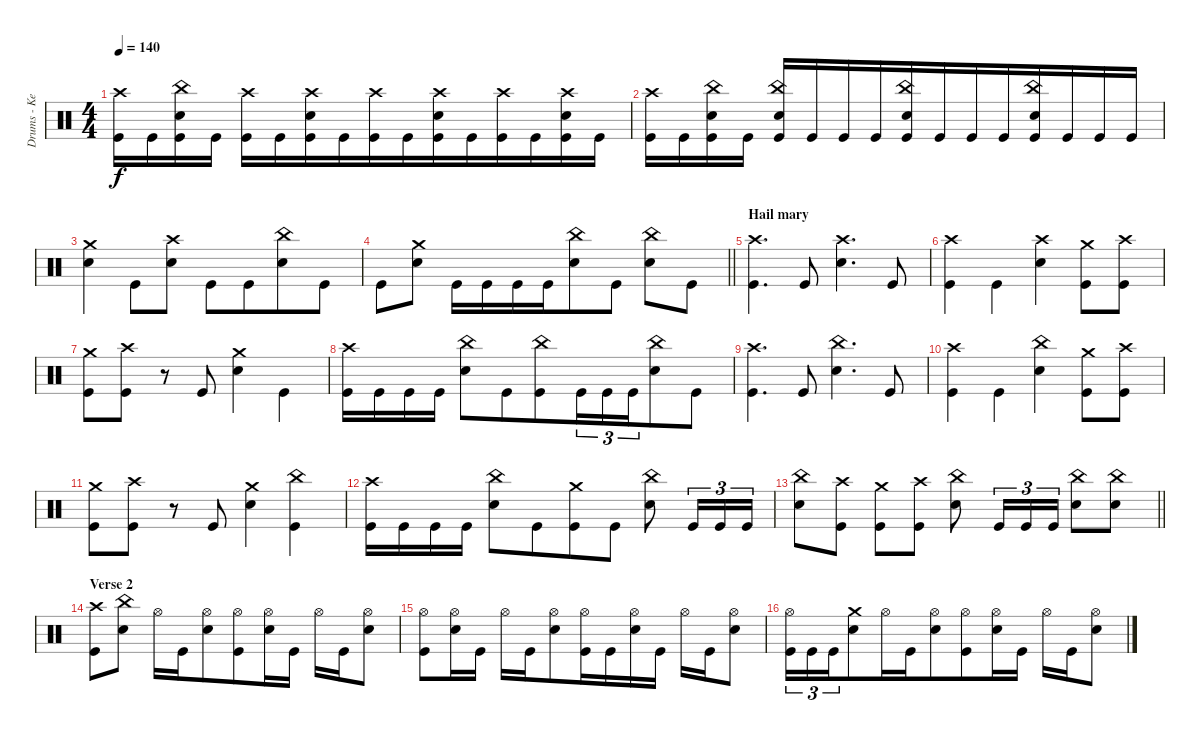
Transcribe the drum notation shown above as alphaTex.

\track ("Drums - Kevin Boutot" "Drums - Ke") {instrument percussion}
\staff {score}
\articulation defaults
\ts (4 4)
\tempo 140
\clef neutral
\ks c
("Crash high (hit)" "Kick (hit)").16{dy f} "Kick (hit)".16 ("China (hit)" "Electric Snare (hit)" "Kick (hit)").16 "Kick (hit)".16 ("Crash high (hit)" "Kick (hit)").16 "Kick (hit)".16{beam merge} ("Crash high (hit)" "Electric Snare (hit)" "Kick (hit)").16 "Kick (hit)".16{beam merge} ("Crash high (hit)" "Kick (hit)").16 "Kick (hit)".16 ("Crash high (hit)" "Electric Snare (hit)" "Kick (hit)").16 "Kick (hit)".16{beam merge} ("Crash high (hit)" "Kick (hit)").16{beam merge} "Kick (hit)".16{beam merge} ("Crash high (hit)" "Electric Snare (hit)" "Kick (hit)").16{beam merge} "Kick (hit)".16 |
("Crash high (hit)" "Kick (hit)").16 "Kick (hit)".16 ("China (hit)" "Electric Snare (hit)" "Kick (hit)").16 "Kick (hit)".16 ("China (hit)" "Electric Snare (hit)" "Kick (hit)").16 "Kick (hit)".16{beam merge} "Kick (hit)".16 "Kick (hit)".16{beam merge} ("China (hit)" "Electric Snare (hit)" "Kick (hit)").16 "Kick (hit)".16 "Kick (hit)".16 "Kick (hit)".16{beam merge} ("China (hit)" "Electric Snare (hit)" "Kick (hit)").16{beam merge} "Kick (hit)".16{beam merge} "Kick (hit)".16{beam merge} "Kick (hit)".16 |
("Crash medium (hit)" "Electric Snare (hit)").4{beam merge} "Kick (hit)".8{beam merge} ("Crash high (hit)" "Electric Snare (hit)").8 "Kick (hit)".8{beam merge} "Kick (hit)".8{beam merge} ("China (hit)" "Electric Snare (hit)").8 "Kick (hit)".8 |
\barLineRight lightlight "Kick (hit)".8{beam merge}
("Crash medium (hit)" "Electric Snare (hit)").8 "Kick (hit)".16 "Kick (hit)".16 "Kick (hit)".16 "Kick (hit)".16{beam merge} ("China (hit)" "Electric Snare (hit)").8{beam merge} "Kick (hit)".8 ("China (hit)" "Electric Snare (hit)").8{beam merge} "Kick (hit)".8 |
\section ("" "Hail mary")
("Crash high (hit)" "Kick (hit)").4{d} "Kick (hit)".8 ("Crash high (hit)" "Electric Snare (hit)").4{d} "Kick (hit)".8 |
("Crash high (hit)" "Kick (hit)").4 "Kick (hit)".4{beam merge} ("Crash high (hit)" "Electric Snare (hit)").4 ("Crash medium (hit)" "Kick (hit)").8{beam merge} ("Crash high (hit)" "Kick (hit)").8 |
("Crash medium (hit)" "Kick (hit)").8 ("Crash high (hit)" "Kick (hit)").8 r.8 "Kick (hit)".8 ("Crash medium (hit)" "Electric Snare (hit)").4{beam merge} "Kick (hit)".4 |
("Crash high (hit)" "Kick (hit)").16 "Kick (hit)".16 "Kick (hit)".16 "Kick (hit)".16 ("China (hit)" "Electric Snare (hit)").8{beam merge} "Kick (hit)".8{beam merge} ("China (hit)" "Kick (hit)").8{beam merge} "Kick (hit)".16{tu (3 2) beam merge} "Kick (hit)".16{tu (3 2)} "Kick (hit)".16{tu (3 2) beam merge} ("China (hit)" "Electric Snare (hit)").8 "Kick (hit)".8 |
("Crash high (hit)" "Kick (hit)").4{d} "Kick (hit)".8 ("China (hit)" "Electric Snare (hit)").4{d} "Kick (hit)".8 |
("Crash high (hit)" "Kick (hit)").4 "Kick (hit)".4{beam merge} ("China (hit)" "Electric Snare (hit)").4 ("Crash medium (hit)" "Kick (hit)").8{beam merge} ("Crash high (hit)" "Kick (hit)").8 |
("Crash medium (hit)" "Kick (hit)").8 ("Crash high (hit)" "Kick (hit)").8 r.8 "Kick (hit)".8 ("Crash medium (hit)" "Electric Snare (hit)").4{beam merge} ("China (hit)" "Kick (hit)").4 |
("Crash high (hit)" "Kick (hit)").16 "Kick (hit)".16 "Kick (hit)".16 "Kick (hit)".16 ("China (hit)" "Electric Snare (hit)").8{beam merge} "Kick (hit)".8{beam merge} ("Crash medium (hit)" "Kick (hit)").8 "Kick (hit)".8 ("China (hit)" "Electric Snare (hit)").8 "Kick (hit)".16{tu (3 2)} "Kick (hit)".16{tu (3 2)} "Kick (hit)".16{tu (3 2)} |
\barLineRight lightlight
("China (hit)" "Electric Snare (hit)").8 ("Crash high (hit)" "Kick (hit)").8 ("Crash medium (hit)" "Kick (hit)").8 ("Crash high (hit)" "Kick (hit)").8 ("China (hit)" "Electric Snare (hit)").8 "Kick (hit)".16{tu (3 2)} "Kick (hit)".16{tu (3 2)} "Kick (hit)".16{tu (3 2)} ("China (hit)" "Electric Snare (hit)").8 ("China (hit)" "Electric Snare (hit)").8 |
\section ("" "Verse 2")
("Crash high (hit)" "Kick (hit)").8{beam merge} ("China (hit)" "Electric Snare (hit)").8 "Hi-Hat (open)".16{beam merge} "Kick (hit)".16 ("Hi-Hat (open)" "Electric Snare (hit)").8{beam merge} ("Hi-Hat (open)" "Kick (hit)").8 ("Hi-Hat (open)" "Electric Snare (hit)").16{beam merge} "Kick (hit)".16 "Hi-Hat (open)".16 "Kick (hit)".16 ("Hi-Hat (open)" "Electric Snare (hit)").8 |
("Hi-Hat (open)" "Kick (hit)").8 ("Hi-Hat (open)" "Electric Snare (hit)").16{beam merge} "Kick (hit)".16 "Hi-Hat (open)".16 "Kick (hit)".16 ("Hi-Hat (open)" "Electric Snare (hit)").8{beam merge} ("Hi-Hat (open)" "Kick (hit)").16 "Kick (hit)".16{beam merge} ("Hi-Hat (open)" "Electric Snare (hit)").16 "Kick (hit)".16 "Hi-Hat (open)".16 "Kick (hit)".16{beam merge} ("Hi-Hat (open)" "Electric Snare (hit)").8 |
("Hi-Hat (open)" "Kick (hit)").16{tu (3 2) beam merge} "Kick (hit)".16{tu (3 2)} "Kick (hit)".16{tu (3 2) beam merge} ("Crash medium (hit)" "Electric Snare (hit)").8{beam merge} "Hi-Hat (open)".16{beam merge} "Kick (hit)".16{beam merge} ("Hi-Hat (open)" "Electric Snare (hit)").8{beam merge} ("Hi-Hat (open)" "Kick (hit)").8 ("Hi-Hat (open)" "Electric Snare (hit)").16{beam merge} "Kick (hit)".16 "Hi-Hat (open)".16 "Kick (hit)".16 ("Hi-Hat (open)" "Electric Snare (hit)").8
